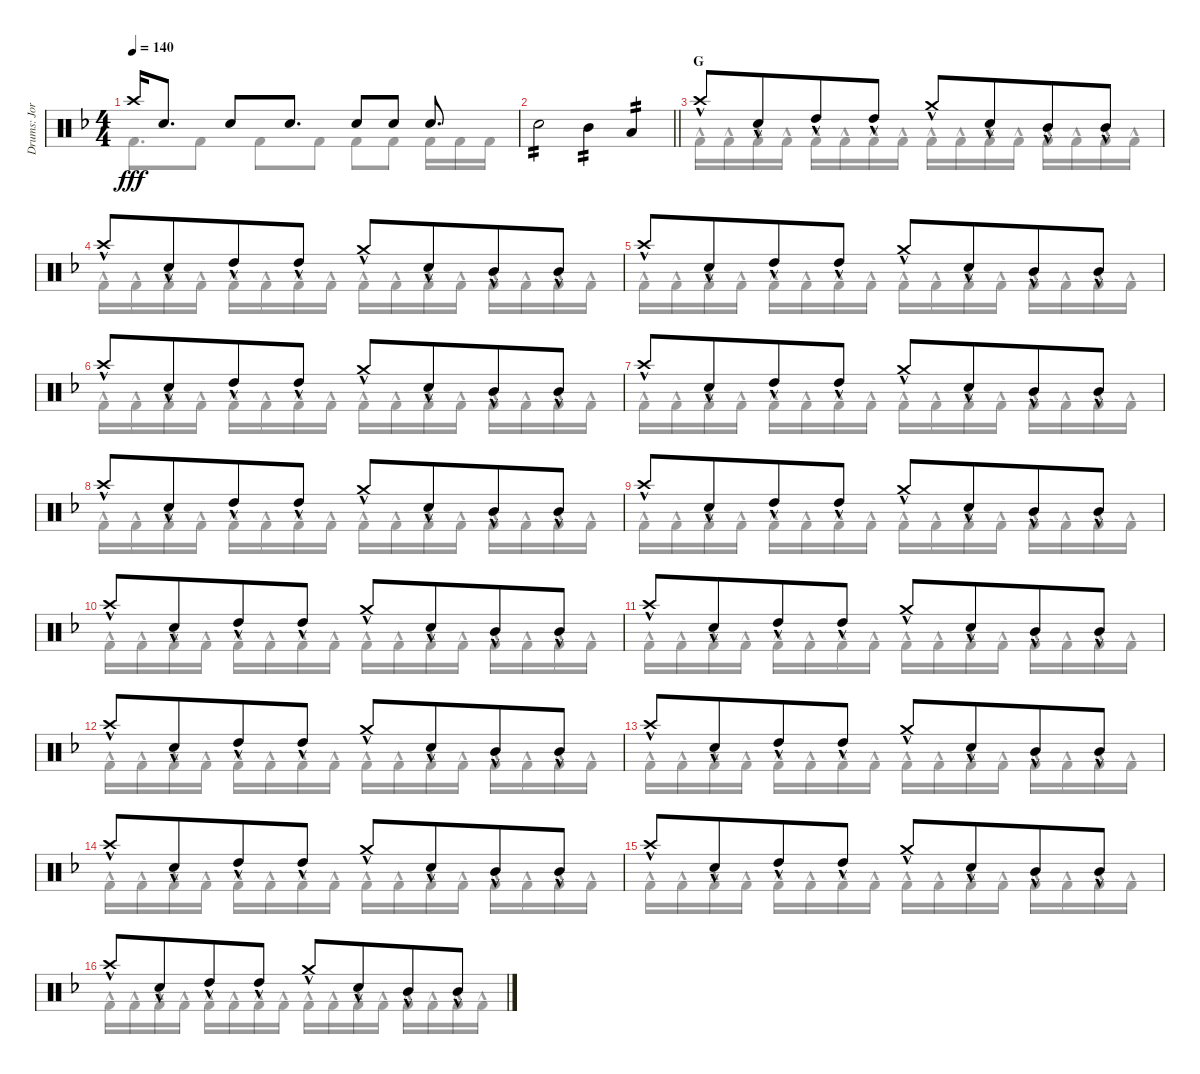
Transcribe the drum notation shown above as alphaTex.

\track ("Drums: Jorg" "Drums: Jor") {instrument percussion}
\staff {score}
\articulation defaults
\voice
\ts (4 4)
\tempo 140
\clef neutral
\ks f "Crash high (hit)".16{dy fff} "Snare (hit) 2".8{d} "Snare (hit) 2".8 "Snare (hit) 2".8{d} "Snare (hit) 2".8 "Snare (hit) 2".8 "Snare (hit) 2".8{d}
|
\barLineRight lightlight "Snare (hit) 2".2{tp 2} "Mid Tom (hit)".4{tp 2} "Low Tom (hit)".4{tp 2}
|
\section ("" "G")
"Crash high (hit)"{hac}.8 "Snare (hit) 2"{hac}.8{beam merge} "High Tom (hit)"{hac}.8 "High Tom (hit)"{hac}.8 "Crash medium (hit)"{hac}.8 "Snare (hit) 2"{hac}.8{beam merge} "Mid Tom (hit)"{hac}.8 "Mid Tom (hit)"{hac}.8 |
"Crash high (hit)"{hac}.8 "Snare (hit) 2"{hac}.8{beam merge} "High Tom (hit)"{hac}.8 "High Tom (hit)"{hac}.8 "Crash medium (hit)"{hac}.8 "Snare (hit) 2"{hac}.8{beam merge} "Mid Tom (hit)"{hac}.8 "Mid Tom (hit)"{hac}.8 |
"Crash high (hit)"{hac}.8 "Snare (hit) 2"{hac}.8{beam merge} "High Tom (hit)"{hac}.8 "High Tom (hit)"{hac}.8 "Crash medium (hit)"{hac}.8 "Snare (hit) 2"{hac}.8{beam merge} "Mid Tom (hit)"{hac}.8 "Mid Tom (hit)"{hac}.8 |
"Crash high (hit)"{hac}.8 "Snare (hit) 2"{hac}.8{beam merge} "High Tom (hit)"{hac}.8 "High Tom (hit)"{hac}.8 "Crash medium (hit)"{hac}.8 "Snare (hit) 2"{hac}.8{beam merge} "Mid Tom (hit)"{hac}.8 "Mid Tom (hit)"{hac}.8 |
"Crash high (hit)"{hac}.8 "Snare (hit) 2"{hac}.8{beam merge} "High Tom (hit)"{hac}.8 "High Tom (hit)"{hac}.8 "Crash medium (hit)"{hac}.8 "Snare (hit) 2"{hac}.8{beam merge} "Mid Tom (hit)"{hac}.8 "Mid Tom (hit)"{hac}.8 |
"Crash high (hit)"{hac}.8 "Snare (hit) 2"{hac}.8{beam merge} "High Tom (hit)"{hac}.8 "High Tom (hit)"{hac}.8 "Crash medium (hit)"{hac}.8 "Snare (hit) 2"{hac}.8{beam merge} "Mid Tom (hit)"{hac}.8 "Mid Tom (hit)"{hac}.8 |
"Crash high (hit)"{hac}.8 "Snare (hit) 2"{hac}.8{beam merge} "High Tom (hit)"{hac}.8 "High Tom (hit)"{hac}.8 "Crash medium (hit)"{hac}.8 "Snare (hit) 2"{hac}.8{beam merge} "Mid Tom (hit)"{hac}.8 "Mid Tom (hit)"{hac}.8 |
"Crash high (hit)"{hac}.8 "Snare (hit) 2"{hac}.8{beam merge} "High Tom (hit)"{hac}.8 "High Tom (hit)"{hac}.8 "Crash medium (hit)"{hac}.8 "Snare (hit) 2"{hac}.8{beam merge} "Mid Tom (hit)"{hac}.8 "Mid Tom (hit)"{hac}.8 |
"Crash high (hit)"{hac}.8 "Snare (hit) 2"{hac}.8{beam merge} "High Tom (hit)"{hac}.8 "High Tom (hit)"{hac}.8 "Crash medium (hit)"{hac}.8 "Snare (hit) 2"{hac}.8{beam merge} "Mid Tom (hit)"{hac}.8 "Mid Tom (hit)"{hac}.8 |
"Crash high (hit)"{hac}.8 "Snare (hit) 2"{hac}.8{beam merge} "High Tom (hit)"{hac}.8 "High Tom (hit)"{hac}.8 "Crash medium (hit)"{hac}.8 "Snare (hit) 2"{hac}.8{beam merge} "Mid Tom (hit)"{hac}.8 "Mid Tom (hit)"{hac}.8 |
"Crash high (hit)"{hac}.8 "Snare (hit) 2"{hac}.8{beam merge} "High Tom (hit)"{hac}.8 "High Tom (hit)"{hac}.8 "Crash medium (hit)"{hac}.8 "Snare (hit) 2"{hac}.8{beam merge} "Mid Tom (hit)"{hac}.8 "Mid Tom (hit)"{hac}.8 |
"Crash high (hit)"{hac}.8 "Snare (hit) 2"{hac}.8{beam merge} "High Tom (hit)"{hac}.8 "High Tom (hit)"{hac}.8 "Crash medium (hit)"{hac}.8 "Snare (hit) 2"{hac}.8{beam merge} "Mid Tom (hit)"{hac}.8 "Mid Tom (hit)"{hac}.8 |
"Crash high (hit)"{hac}.8 "Snare (hit) 2"{hac}.8{beam merge} "High Tom (hit)"{hac}.8 "High Tom (hit)"{hac}.8 "Crash medium (hit)"{hac}.8 "Snare (hit) 2"{hac}.8{beam merge} "Mid Tom (hit)"{hac}.8 "Mid Tom (hit)"{hac}.8 |
"Crash high (hit)"{hac}.8 "Snare (hit) 2"{hac}.8{beam merge} "High Tom (hit)"{hac}.8 "High Tom (hit)"{hac}.8 "Crash medium (hit)"{hac}.8 "Snare (hit) 2"{hac}.8{beam merge} "Mid Tom (hit)"{hac}.8 "Mid Tom (hit)"{hac}.8
\voice
\clef neutral
\ottava regular
\simile none
\ks f "Kick (hit) 2".8{d dy fff} "Kick (hit) 2".8 "Kick (hit) 2".8 "Kick (hit) 2".8 "Kick (hit) 2".8 "Kick (hit) 2".8 "Kick (hit) 2".16 "Kick (hit) 2".16 "Kick (hit) 2".16
|
\barLineRight lightlight
|
"Kick (hit) 2"{hac}.16 "Kick (hit) 2"{hac}.16 "Kick (hit) 2"{hac}.16 "Kick (hit) 2"{hac}.16 "Kick (hit) 2"{hac}.16 "Kick (hit) 2"{hac}.16 "Kick (hit) 2"{hac}.16 "Kick (hit) 2"{hac}.16 "Kick (hit) 2"{hac}.16 "Kick (hit) 2"{hac}.16 "Kick (hit) 2"{hac}.16 "Kick (hit) 2"{hac}.16 "Kick (hit) 2"{hac}.16 "Kick (hit) 2"{hac}.16 "Kick (hit) 2"{hac}.16 "Kick (hit) 2"{hac}.16 |
"Kick (hit) 2"{hac}.16 "Kick (hit) 2"{hac}.16 "Kick (hit) 2"{hac}.16 "Kick (hit) 2"{hac}.16 "Kick (hit) 2"{hac}.16 "Kick (hit) 2"{hac}.16 "Kick (hit) 2"{hac}.16 "Kick (hit) 2"{hac}.16 "Kick (hit) 2"{hac}.16 "Kick (hit) 2"{hac}.16 "Kick (hit) 2"{hac}.16 "Kick (hit) 2"{hac}.16 "Kick (hit) 2"{hac}.16 "Kick (hit) 2"{hac}.16 "Kick (hit) 2"{hac}.16 "Kick (hit) 2"{hac}.16 |
"Kick (hit) 2"{hac}.16 "Kick (hit) 2"{hac}.16 "Kick (hit) 2"{hac}.16 "Kick (hit) 2"{hac}.16 "Kick (hit) 2"{hac}.16 "Kick (hit) 2"{hac}.16 "Kick (hit) 2"{hac}.16 "Kick (hit) 2"{hac}.16 "Kick (hit) 2"{hac}.16 "Kick (hit) 2"{hac}.16 "Kick (hit) 2"{hac}.16 "Kick (hit) 2"{hac}.16 "Kick (hit) 2"{hac}.16 "Kick (hit) 2"{hac}.16 "Kick (hit) 2"{hac}.16 "Kick (hit) 2"{hac}.16 |
"Kick (hit) 2"{hac}.16 "Kick (hit) 2"{hac}.16 "Kick (hit) 2"{hac}.16 "Kick (hit) 2"{hac}.16 "Kick (hit) 2"{hac}.16 "Kick (hit) 2"{hac}.16 "Kick (hit) 2"{hac}.16 "Kick (hit) 2"{hac}.16 "Kick (hit) 2"{hac}.16 "Kick (hit) 2"{hac}.16 "Kick (hit) 2"{hac}.16 "Kick (hit) 2"{hac}.16 "Kick (hit) 2"{hac}.16 "Kick (hit) 2"{hac}.16 "Kick (hit) 2"{hac}.16 "Kick (hit) 2"{hac}.16 |
"Kick (hit) 2"{hac}.16 "Kick (hit) 2"{hac}.16 "Kick (hit) 2"{hac}.16 "Kick (hit) 2"{hac}.16 "Kick (hit) 2"{hac}.16 "Kick (hit) 2"{hac}.16 "Kick (hit) 2"{hac}.16 "Kick (hit) 2"{hac}.16 "Kick (hit) 2"{hac}.16 "Kick (hit) 2"{hac}.16 "Kick (hit) 2"{hac}.16 "Kick (hit) 2"{hac}.16 "Kick (hit) 2"{hac}.16 "Kick (hit) 2"{hac}.16 "Kick (hit) 2"{hac}.16 "Kick (hit) 2"{hac}.16 |
"Kick (hit) 2"{hac}.16 "Kick (hit) 2"{hac}.16 "Kick (hit) 2"{hac}.16 "Kick (hit) 2"{hac}.16 "Kick (hit) 2"{hac}.16 "Kick (hit) 2"{hac}.16 "Kick (hit) 2"{hac}.16 "Kick (hit) 2"{hac}.16 "Kick (hit) 2"{hac}.16 "Kick (hit) 2"{hac}.16 "Kick (hit) 2"{hac}.16 "Kick (hit) 2"{hac}.16 "Kick (hit) 2"{hac}.16 "Kick (hit) 2"{hac}.16 "Kick (hit) 2"{hac}.16 "Kick (hit) 2"{hac}.16 |
"Kick (hit) 2"{hac}.16 "Kick (hit) 2"{hac}.16 "Kick (hit) 2"{hac}.16 "Kick (hit) 2"{hac}.16 "Kick (hit) 2"{hac}.16 "Kick (hit) 2"{hac}.16 "Kick (hit) 2"{hac}.16 "Kick (hit) 2"{hac}.16 "Kick (hit) 2"{hac}.16 "Kick (hit) 2"{hac}.16 "Kick (hit) 2"{hac}.16 "Kick (hit) 2"{hac}.16 "Kick (hit) 2"{hac}.16 "Kick (hit) 2"{hac}.16 "Kick (hit) 2"{hac}.16 "Kick (hit) 2"{hac}.16 |
"Kick (hit) 2"{hac}.16 "Kick (hit) 2"{hac}.16 "Kick (hit) 2"{hac}.16 "Kick (hit) 2"{hac}.16 "Kick (hit) 2"{hac}.16 "Kick (hit) 2"{hac}.16 "Kick (hit) 2"{hac}.16 "Kick (hit) 2"{hac}.16 "Kick (hit) 2"{hac}.16 "Kick (hit) 2"{hac}.16 "Kick (hit) 2"{hac}.16 "Kick (hit) 2"{hac}.16 "Kick (hit) 2"{hac}.16 "Kick (hit) 2"{hac}.16 "Kick (hit) 2"{hac}.16 "Kick (hit) 2"{hac}.16 |
"Kick (hit) 2"{hac}.16 "Kick (hit) 2"{hac}.16 "Kick (hit) 2"{hac}.16 "Kick (hit) 2"{hac}.16 "Kick (hit) 2"{hac}.16 "Kick (hit) 2"{hac}.16 "Kick (hit) 2"{hac}.16 "Kick (hit) 2"{hac}.16 "Kick (hit) 2"{hac}.16 "Kick (hit) 2"{hac}.16 "Kick (hit) 2"{hac}.16 "Kick (hit) 2"{hac}.16 "Kick (hit) 2"{hac}.16 "Kick (hit) 2"{hac}.16 "Kick (hit) 2"{hac}.16 "Kick (hit) 2"{hac}.16 |
"Kick (hit) 2"{hac}.16 "Kick (hit) 2"{hac}.16 "Kick (hit) 2"{hac}.16 "Kick (hit) 2"{hac}.16 "Kick (hit) 2"{hac}.16 "Kick (hit) 2"{hac}.16 "Kick (hit) 2"{hac}.16 "Kick (hit) 2"{hac}.16 "Kick (hit) 2"{hac}.16 "Kick (hit) 2"{hac}.16 "Kick (hit) 2"{hac}.16 "Kick (hit) 2"{hac}.16 "Kick (hit) 2"{hac}.16 "Kick (hit) 2"{hac}.16 "Kick (hit) 2"{hac}.16 "Kick (hit) 2"{hac}.16 |
"Kick (hit) 2"{hac}.16 "Kick (hit) 2"{hac}.16 "Kick (hit) 2"{hac}.16 "Kick (hit) 2"{hac}.16 "Kick (hit) 2"{hac}.16 "Kick (hit) 2"{hac}.16 "Kick (hit) 2"{hac}.16 "Kick (hit) 2"{hac}.16 "Kick (hit) 2"{hac}.16 "Kick (hit) 2"{hac}.16 "Kick (hit) 2"{hac}.16 "Kick (hit) 2"{hac}.16 "Kick (hit) 2"{hac}.16 "Kick (hit) 2"{hac}.16 "Kick (hit) 2"{hac}.16 "Kick (hit) 2"{hac}.16 |
"Kick (hit) 2"{hac}.16 "Kick (hit) 2"{hac}.16 "Kick (hit) 2"{hac}.16 "Kick (hit) 2"{hac}.16 "Kick (hit) 2"{hac}.16 "Kick (hit) 2"{hac}.16 "Kick (hit) 2"{hac}.16 "Kick (hit) 2"{hac}.16 "Kick (hit) 2"{hac}.16 "Kick (hit) 2"{hac}.16 "Kick (hit) 2"{hac}.16 "Kick (hit) 2"{hac}.16 "Kick (hit) 2"{hac}.16 "Kick (hit) 2"{hac}.16 "Kick (hit) 2"{hac}.16 "Kick (hit) 2"{hac}.16 |
"Kick (hit) 2"{hac}.16 "Kick (hit) 2"{hac}.16 "Kick (hit) 2"{hac}.16 "Kick (hit) 2"{hac}.16 "Kick (hit) 2"{hac}.16 "Kick (hit) 2"{hac}.16 "Kick (hit) 2"{hac}.16 "Kick (hit) 2"{hac}.16 "Kick (hit) 2"{hac}.16 "Kick (hit) 2"{hac}.16 "Kick (hit) 2"{hac}.16 "Kick (hit) 2"{hac}.16 "Kick (hit) 2"{hac}.16 "Kick (hit) 2"{hac}.16 "Kick (hit) 2"{hac}.16 "Kick (hit) 2"{hac}.16 |
"Kick (hit) 2"{hac}.16 "Kick (hit) 2"{hac}.16 "Kick (hit) 2"{hac}.16 "Kick (hit) 2"{hac}.16 "Kick (hit) 2"{hac}.16 "Kick (hit) 2"{hac}.16 "Kick (hit) 2"{hac}.16 "Kick (hit) 2"{hac}.16 "Kick (hit) 2"{hac}.16 "Kick (hit) 2"{hac}.16 "Kick (hit) 2"{hac}.16 "Kick (hit) 2"{hac}.16 "Kick (hit) 2"{hac}.16 "Kick (hit) 2"{hac}.16 "Kick (hit) 2"{hac}.16 "Kick (hit) 2"{hac}.16
